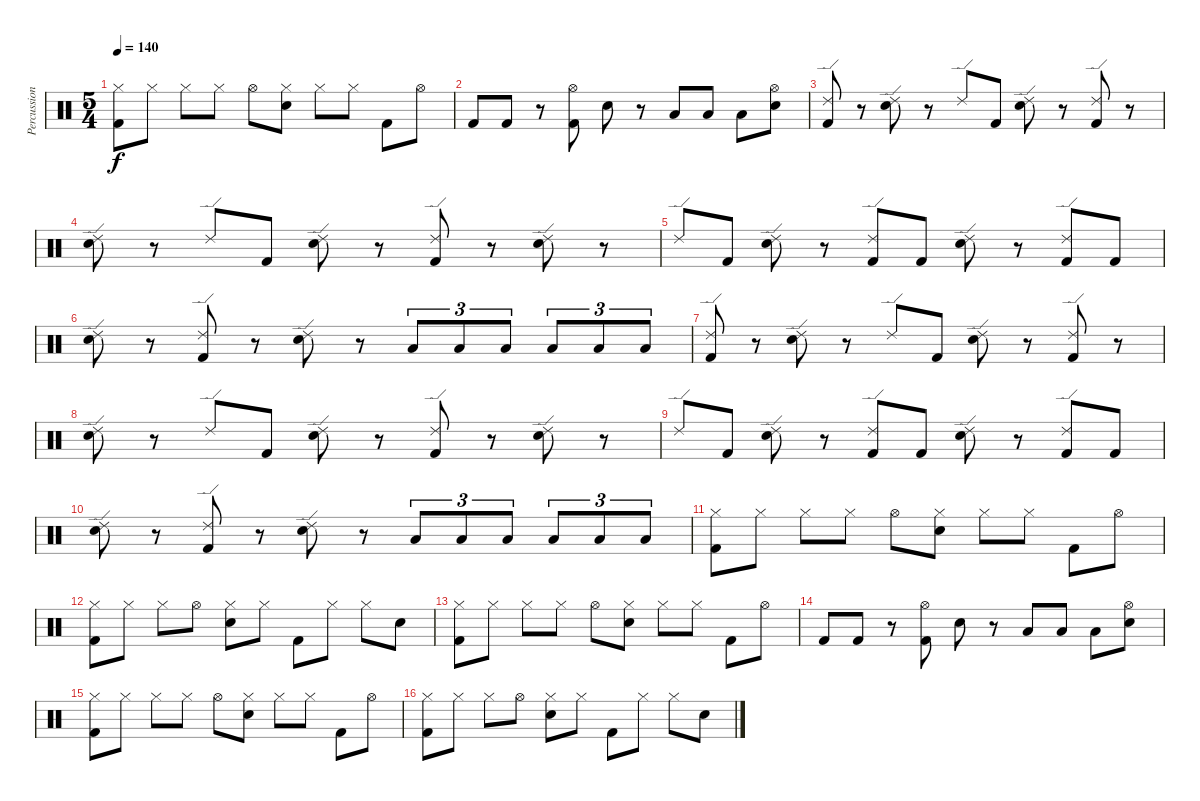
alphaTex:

\track ("Percussion" "Percussion") {instrument percussion}
\staff {score}
\articulation defaults
\ts (5 4)
\tempo 140
\clef neutral
\ks c
("Hi-Hat (closed)" "Kick (hit) 2").8{dy f} "Hi-Hat (closed)".8 "Hi-Hat (closed)".8 "Hi-Hat (closed)".8 "Hi-Hat (open)".8 ("Hi-Hat (closed)" "Snare (hit) 2").8 "Hi-Hat (closed)".8 "Hi-Hat (closed)".8 "Kick (hit) 2".8 "Hi-Hat (open)".8 |
"Kick (hit) 2".8 "Kick (hit) 2".8 r.8 ("Hi-Hat (open)" "Kick (hit) 2").8 "Snare (hit) 2".8 r.8 "Low Tom (hit)".8 "Low Tom (hit)".8 "Low Tom (hit)".8 ("Hi-Hat (open)" "Snare (hit) 2").8 |
("Ride (edge) 2" "Kick (hit) 2").8 r.8 ("Ride (edge) 2" "Snare (hit) 2").8 r.8 "Ride (edge) 2".8 "Kick (hit) 2".8 ("Ride (edge) 2" "Snare (hit) 2").8 r.8 ("Ride (edge) 2" "Kick (hit) 2").8 r.8 |
("Ride (edge) 2" "Snare (hit) 2").8 r.8 "Ride (edge) 2".8 "Kick (hit) 2".8 ("Ride (edge) 2" "Snare (hit) 2").8 r.8 ("Ride (edge) 2" "Kick (hit) 2").8 r.8 ("Ride (edge) 2" "Snare (hit) 2").8 r.8 |
"Ride (edge) 2".8 "Kick (hit) 2".8 ("Ride (edge) 2" "Snare (hit) 2").8 r.8 ("Ride (edge) 2" "Kick (hit) 2").8 "Kick (hit) 2".8 ("Ride (edge) 2" "Snare (hit) 2").8 r.8 ("Ride (edge) 2" "Kick (hit) 2").8 "Kick (hit) 2".8 |
("Ride (edge) 2" "Snare (hit) 2").8 r.8 ("Ride (edge) 2" "Kick (hit) 2").8 r.8 ("Ride (edge) 2" "Snare (hit) 2").8 r.8 "Low Tom (hit)".8{tu (3 2)} "Low Tom (hit)".8{tu (3 2)} "Low Tom (hit)".8{tu (3 2)} "Low Tom (hit)".8{tu (3 2)} "Low Tom (hit)".8{tu (3 2)} "Low Tom (hit)".8{tu (3 2)} |
("Ride (edge) 2" "Kick (hit) 2").8 r.8 ("Ride (edge) 2" "Snare (hit) 2").8 r.8 "Ride (edge) 2".8 "Kick (hit) 2".8 ("Ride (edge) 2" "Snare (hit) 2").8 r.8 ("Ride (edge) 2" "Kick (hit) 2").8 r.8 |
("Ride (edge) 2" "Snare (hit) 2").8 r.8 "Ride (edge) 2".8 "Kick (hit) 2".8 ("Ride (edge) 2" "Snare (hit) 2").8 r.8 ("Ride (edge) 2" "Kick (hit) 2").8 r.8 ("Ride (edge) 2" "Snare (hit) 2").8 r.8 |
"Ride (edge) 2".8 "Kick (hit) 2".8 ("Ride (edge) 2" "Snare (hit) 2").8 r.8 ("Ride (edge) 2" "Kick (hit) 2").8 "Kick (hit) 2".8 ("Ride (edge) 2" "Snare (hit) 2").8 r.8 ("Ride (edge) 2" "Kick (hit) 2").8 "Kick (hit) 2".8 |
("Ride (edge) 2" "Snare (hit) 2").8 r.8 ("Ride (edge) 2" "Kick (hit) 2").8 r.8 ("Ride (edge) 2" "Snare (hit) 2").8 r.8 "Low Tom (hit)".8{tu (3 2)} "Low Tom (hit)".8{tu (3 2)} "Low Tom (hit)".8{tu (3 2)} "Low Tom (hit)".8{tu (3 2)} "Low Tom (hit)".8{tu (3 2)} "Low Tom (hit)".8{tu (3 2)} |
("Hi-Hat (closed)" "Kick (hit) 2").8 "Hi-Hat (closed)".8 "Hi-Hat (closed)".8 "Hi-Hat (closed)".8 "Hi-Hat (open)".8 ("Hi-Hat (closed)" "Snare (hit) 2").8 "Hi-Hat (closed)".8 "Hi-Hat (closed)".8 "Kick (hit) 2".8 "Hi-Hat (open)".8 |
("Hi-Hat (closed)" "Kick (hit) 2").8 "Hi-Hat (closed)".8 "Hi-Hat (closed)".8 "Hi-Hat (open)".8 ("Hi-Hat (closed)" "Snare (hit) 2").8 "Hi-Hat (closed)".8 "Kick (hit) 2".8 "Hi-Hat (closed)".8 "Hi-Hat (closed)".8 "Snare (hit) 2".8 |
("Hi-Hat (closed)" "Kick (hit) 2").8 "Hi-Hat (closed)".8 "Hi-Hat (closed)".8 "Hi-Hat (closed)".8 "Hi-Hat (open)".8 ("Hi-Hat (closed)" "Snare (hit) 2").8 "Hi-Hat (closed)".8 "Hi-Hat (closed)".8 "Kick (hit) 2".8 "Hi-Hat (open)".8 |
"Kick (hit) 2".8 "Kick (hit) 2".8 r.8 ("Hi-Hat (open)" "Kick (hit) 2").8 "Snare (hit) 2".8 r.8 "Low Tom (hit)".8 "Low Tom (hit)".8 "Low Tom (hit)".8 ("Hi-Hat (open)" "Snare (hit) 2").8 |
("Hi-Hat (closed)" "Kick (hit) 2").8 "Hi-Hat (closed)".8 "Hi-Hat (closed)".8 "Hi-Hat (closed)".8 "Hi-Hat (open)".8 ("Hi-Hat (closed)" "Snare (hit) 2").8 "Hi-Hat (closed)".8 "Hi-Hat (closed)".8 "Kick (hit) 2".8 "Hi-Hat (open)".8 |
("Hi-Hat (closed)" "Kick (hit) 2").8 "Hi-Hat (closed)".8 "Hi-Hat (closed)".8 "Hi-Hat (open)".8 ("Hi-Hat (closed)" "Snare (hit) 2").8 "Hi-Hat (closed)".8 "Kick (hit) 2".8 "Hi-Hat (closed)".8 "Hi-Hat (closed)".8 "Snare (hit) 2".8
